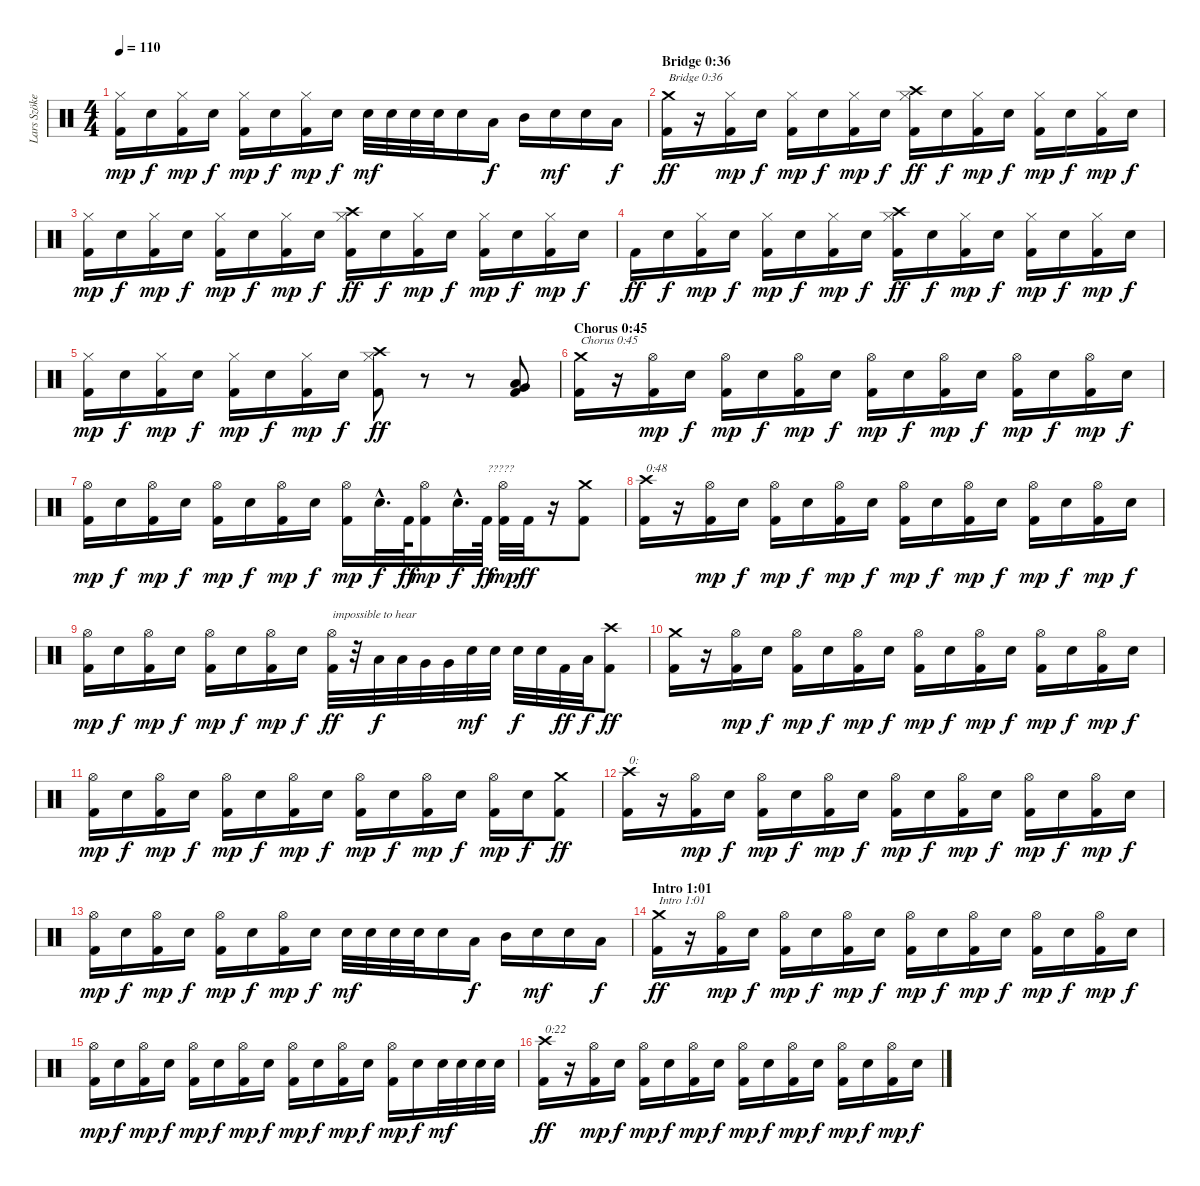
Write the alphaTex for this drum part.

\track ("Lars Szöke (Drums)" "Lars Szöke") {instrument percussion}
\staff {score}
\articulation defaults
\ts (4 4)
\tempo 110
\clef neutral
\ks c
("Kick (hit) 2" "Hi-Hat (closed)").16{dy mp} "Electric Snare (hit)".16{dy f} ("Kick (hit) 2" "Hi-Hat (closed)").16{dy mp} "Electric Snare (hit)".16{dy f} ("Kick (hit) 2" "Hi-Hat (closed)").16{dy mp} "Electric Snare (hit)".16{dy f} ("Kick (hit) 2" "Hi-Hat (closed)").16{dy mp} "Electric Snare (hit)".16{dy f} "Electric Snare (hit)".32{dy mf} "Electric Snare (hit)".32 "Electric Snare (hit)".32 "Electric Snare (hit)".32 "Electric Snare (hit)".16 "Low Tom (hit)".16{dy f} "Mid Tom (hit)".16 "Electric Snare (hit)".16{dy mf} "Electric Snare (hit)".16 "Low Tom (hit)".16{dy f} |
\section ("" "Bridge 0:36")
("Kick (hit) 2" "Crash medium (hit)").16{txt "Bridge 0:36" dy ff} r.16 ("Kick (hit) 2" "Hi-Hat (closed)").16{dy mp} "Electric Snare (hit)".16{dy f} ("Kick (hit) 2" "Hi-Hat (closed)").16{dy mp} "Electric Snare (hit)".16{dy f} ("Kick (hit) 2" "Hi-Hat (closed)").16{dy mp} "Electric Snare (hit)".16{dy f} ("Kick (hit) 2" "Hi-Hat (closed)" "Crash high (hit)").16{dy ff} "Electric Snare (hit)".16{dy f} ("Kick (hit) 2" "Hi-Hat (closed)").16{dy mp} "Electric Snare (hit)".16{dy f} ("Kick (hit) 2" "Hi-Hat (closed)").16{dy mp} "Electric Snare (hit)".16{dy f} ("Kick (hit) 2" "Hi-Hat (closed)").16{dy mp} "Electric Snare (hit)".16{dy f} |
("Kick (hit) 2" "Hi-Hat (closed)").16{dy mp} "Electric Snare (hit)".16{dy f} ("Kick (hit) 2" "Hi-Hat (closed)").16{dy mp} "Electric Snare (hit)".16{dy f} ("Kick (hit) 2" "Hi-Hat (closed)").16{dy mp} "Electric Snare (hit)".16{dy f} ("Kick (hit) 2" "Hi-Hat (closed)").16{dy mp} "Electric Snare (hit)".16{dy f} ("Kick (hit) 2" "Hi-Hat (closed)" "Crash high (hit)").16{dy ff} "Electric Snare (hit)".16{dy f} ("Kick (hit) 2" "Hi-Hat (closed)").16{dy mp} "Electric Snare (hit)".16{dy f} ("Kick (hit) 2" "Hi-Hat (closed)").16{dy mp} "Electric Snare (hit)".16{dy f} ("Kick (hit) 2" "Hi-Hat (closed)").16{dy mp} "Electric Snare (hit)".16{dy f} |
"Kick (hit) 2".16{dy ff} "Electric Snare (hit)".16{dy f} ("Kick (hit) 2" "Hi-Hat (closed)").16{dy mp} "Electric Snare (hit)".16{dy f} ("Kick (hit) 2" "Hi-Hat (closed)").16{dy mp} "Electric Snare (hit)".16{dy f} ("Kick (hit) 2" "Hi-Hat (closed)").16{dy mp} "Electric Snare (hit)".16{dy f} ("Kick (hit) 2" "Hi-Hat (closed)" "Crash high (hit)").16{dy ff} "Electric Snare (hit)".16{dy f} ("Kick (hit) 2" "Hi-Hat (closed)").16{dy mp} "Electric Snare (hit)".16{dy f} ("Kick (hit) 2" "Hi-Hat (closed)").16{dy mp} "Electric Snare (hit)".16{dy f} ("Kick (hit) 2" "Hi-Hat (closed)").16{dy mp} "Electric Snare (hit)".16{dy f} |
("Kick (hit) 2" "Hi-Hat (closed)").16{dy mp} "Electric Snare (hit)".16{dy f} ("Kick (hit) 2" "Hi-Hat (closed)").16{dy mp} "Electric Snare (hit)".16{dy f} ("Kick (hit) 2" "Hi-Hat (closed)").16{dy mp} "Electric Snare (hit)".16{dy f} ("Kick (hit) 2" "Hi-Hat (closed)").16{dy mp} "Electric Snare (hit)".16{dy f} ("Kick (hit) 2" "Hi-Hat (closed)" "Crash high (hit)").8{dy ff} r.8 r.8 ("Kick (hit) 2" "Low Tom (hit)" "Very Low Tom (hit)").8 |
\section ("" "Chorus 0:45")
("Kick (hit) 2" "Crash medium (hit)").16{txt "Chorus 0:45"} r.16 ("Kick (hit) 2" "Hi-Hat (open)").16{dy mp} "Electric Snare (hit)".16{dy f} ("Kick (hit) 2" "Hi-Hat (open)").16{dy mp} "Electric Snare (hit)".16{dy f} ("Kick (hit) 2" "Hi-Hat (open)").16{dy mp} "Electric Snare (hit)".16{dy f} ("Kick (hit) 2" "Hi-Hat (open)").16{dy mp} "Electric Snare (hit)".16{dy f} ("Kick (hit) 2" "Hi-Hat (open)").16{dy mp} "Electric Snare (hit)".16{dy f} ("Kick (hit) 2" "Hi-Hat (open)").16{dy mp} "Electric Snare (hit)".16{dy f} ("Kick (hit) 2" "Hi-Hat (open)").16{dy mp} "Electric Snare (hit)".16{dy f} |
("Kick (hit) 2" "Hi-Hat (open)").16{dy mp} "Electric Snare (hit)".16{dy f} ("Kick (hit) 2" "Hi-Hat (open)").16{dy mp} "Electric Snare (hit)".16{dy f} ("Kick (hit) 2" "Hi-Hat (open)").16{dy mp} "Electric Snare (hit)".16{dy f} ("Kick (hit) 2" "Hi-Hat (open)").16{dy mp} "Electric Snare (hit)".16{dy f} ("Kick (hit) 2" "Hi-Hat (open)").16{dy mp} "Electric Snare (hit)"{hac}.32{d dy f} "Kick (hit) 2".64{dy ff} ("Kick (hit) 2" "Hi-Hat (open)").16{dy mp} "Electric Snare (hit)"{hac}.32{d dy f} "Kick (hit) 2".64{txt "?????" dy ff} ("Kick (hit) 2" "Hi-Hat (open)").32{dy mp} "Kick (hit) 2".32{dy ff} r.16 ("Kick (hit) 2" "Crash medium (hit)").8 |
("Kick (hit) 2" "Crash high (hit)").16{txt "0:48"} r.16 ("Kick (hit) 2" "Hi-Hat (open)").16{dy mp} "Electric Snare (hit)".16{dy f} ("Kick (hit) 2" "Hi-Hat (open)").16{dy mp} "Electric Snare (hit)".16{dy f} ("Kick (hit) 2" "Hi-Hat (open)").16{dy mp} "Electric Snare (hit)".16{dy f} ("Kick (hit) 2" "Hi-Hat (open)").16{dy mp} "Electric Snare (hit)".16{dy f} ("Kick (hit) 2" "Hi-Hat (open)").16{dy mp} "Electric Snare (hit)".16{dy f} ("Kick (hit) 2" "Hi-Hat (open)").16{dy mp} "Electric Snare (hit)".16{dy f} ("Kick (hit) 2" "Hi-Hat (open)").16{dy mp} "Electric Snare (hit)".16{dy f} |
("Kick (hit) 2" "Hi-Hat (open)").16{dy mp} "Electric Snare (hit)".16{dy f} ("Kick (hit) 2" "Hi-Hat (open)").16{dy mp} "Electric Snare (hit)".16{dy f} ("Kick (hit) 2" "Hi-Hat (open)").16{dy mp} "Electric Snare (hit)".16{dy f} ("Kick (hit) 2" "Hi-Hat (open)").16{dy mp} "Electric Snare (hit)".16{dy f} ("Kick (hit) 2" "Hi-Hat (open)").32{txt "impossible to hear" dy ff} r.32 "Low Tom (hit)".32{dy f} "Low Tom (hit)".32 "Very Low Tom (hit)".32 "Very Low Tom (hit)".32 "Electric Snare (hit)".32{dy mf} "Electric Snare (hit)".32 "Electric Snare (hit)".32{dy f} "Electric Snare (hit)".32 "Kick (hit) 2".32{dy ff} "Low Tom (hit)".32{dy f} ("Kick (hit) 2" "Crash high (hit)").8{dy ff} |
("Kick (hit) 2" "Crash medium (hit)").16 r.16 ("Kick (hit) 2" "Hi-Hat (open)").16{dy mp} "Electric Snare (hit)".16{dy f} ("Kick (hit) 2" "Hi-Hat (open)").16{dy mp} "Electric Snare (hit)".16{dy f} ("Kick (hit) 2" "Hi-Hat (open)").16{dy mp} "Electric Snare (hit)".16{dy f} ("Kick (hit) 2" "Hi-Hat (open)").16{dy mp} "Electric Snare (hit)".16{dy f} ("Kick (hit) 2" "Hi-Hat (open)").16{dy mp} "Electric Snare (hit)".16{dy f} ("Kick (hit) 2" "Hi-Hat (open)").16{dy mp} "Electric Snare (hit)".16{dy f} ("Kick (hit) 2" "Hi-Hat (open)").16{dy mp} "Electric Snare (hit)".16{dy f} |
("Kick (hit) 2" "Hi-Hat (open)").16{dy mp} "Electric Snare (hit)".16{dy f} ("Kick (hit) 2" "Hi-Hat (open)").16{dy mp} "Electric Snare (hit)".16{dy f} ("Kick (hit) 2" "Hi-Hat (open)").16{dy mp} "Electric Snare (hit)".16{dy f} ("Kick (hit) 2" "Hi-Hat (open)").16{dy mp} "Electric Snare (hit)".16{dy f} ("Kick (hit) 2" "Hi-Hat (open)").16{dy mp} "Electric Snare (hit)".16{dy f} ("Kick (hit) 2" "Hi-Hat (open)").16{dy mp} "Electric Snare (hit)".16{dy f} ("Kick (hit) 2" "Hi-Hat (open)").16{dy mp} "Electric Snare (hit)".16{dy f} ("Kick (hit) 2" "Crash medium (hit)").8{dy ff} |
("Kick (hit) 2" "Crash high (hit)").16{txt "0:"} r.16 ("Kick (hit) 2" "Hi-Hat (open)").16{dy mp} "Electric Snare (hit)".16{dy f} ("Kick (hit) 2" "Hi-Hat (open)").16{dy mp} "Electric Snare (hit)".16{dy f} ("Kick (hit) 2" "Hi-Hat (open)").16{dy mp} "Electric Snare (hit)".16{dy f} ("Kick (hit) 2" "Hi-Hat (open)").16{dy mp} "Electric Snare (hit)".16{dy f} ("Kick (hit) 2" "Hi-Hat (open)").16{dy mp} "Electric Snare (hit)".16{dy f} ("Kick (hit) 2" "Hi-Hat (open)").16{dy mp} "Electric Snare (hit)".16{dy f} ("Kick (hit) 2" "Hi-Hat (open)").16{dy mp} "Electric Snare (hit)".16{dy f} |
("Kick (hit) 2" "Hi-Hat (open)").16{dy mp} "Electric Snare (hit)".16{dy f} ("Kick (hit) 2" "Hi-Hat (open)").16{dy mp} "Electric Snare (hit)".16{dy f} ("Kick (hit) 2" "Hi-Hat (open)").16{dy mp} "Electric Snare (hit)".16{dy f} ("Kick (hit) 2" "Hi-Hat (open)").16{dy mp} "Electric Snare (hit)".16{dy f} "Electric Snare (hit)".32{dy mf} "Electric Snare (hit)".32 "Electric Snare (hit)".32 "Electric Snare (hit)".32 "Electric Snare (hit)".16 "Low Tom (hit)".16{dy f} "Mid Tom (hit)".16 "Electric Snare (hit)".16{dy mf} "Electric Snare (hit)".16 "Low Tom (hit)".16{dy f} |
\section ("" "Intro 1:01")
("Kick (hit) 2" "Crash medium (hit)").16{txt "Intro 1:01" dy ff} r.16 ("Kick (hit) 2" "Hi-Hat (open)").16{dy mp} "Electric Snare (hit)".16{dy f} ("Kick (hit) 2" "Hi-Hat (open)").16{dy mp} "Electric Snare (hit)".16{dy f} ("Kick (hit) 2" "Hi-Hat (open)").16{dy mp} "Electric Snare (hit)".16{dy f} ("Kick (hit) 2" "Hi-Hat (open)").16{dy mp} "Electric Snare (hit)".16{dy f} ("Kick (hit) 2" "Hi-Hat (open)").16{dy mp} "Electric Snare (hit)".16{dy f} ("Kick (hit) 2" "Hi-Hat (open)").16{dy mp} "Electric Snare (hit)".16{dy f} ("Kick (hit) 2" "Hi-Hat (open)").16{dy mp} "Electric Snare (hit)".16{dy f} |
("Kick (hit) 2" "Hi-Hat (open)").16{dy mp} "Electric Snare (hit)".16{dy f} ("Kick (hit) 2" "Hi-Hat (open)").16{dy mp} "Electric Snare (hit)".16{dy f} ("Kick (hit) 2" "Hi-Hat (open)").16{dy mp} "Electric Snare (hit)".16{dy f} ("Kick (hit) 2" "Hi-Hat (open)").16{dy mp} "Electric Snare (hit)".16{dy f} ("Kick (hit) 2" "Hi-Hat (open)").16{dy mp} "Electric Snare (hit)".16{dy f} ("Kick (hit) 2" "Hi-Hat (open)").16{dy mp} "Electric Snare (hit)".16{dy f} ("Kick (hit) 2" "Hi-Hat (open)").16{dy mp} "Electric Snare (hit)".16{dy f} "Electric Snare (hit)".32{dy mf} "Electric Snare (hit)".32 "Electric Snare (hit)".32 "Electric Snare (hit)".32 |
("Kick (hit) 2" "Crash high (hit)").16{txt "0:22" dy ff} r.16 ("Kick (hit) 2" "Hi-Hat (open)").16{dy mp} "Electric Snare (hit)".16{dy f} ("Kick (hit) 2" "Hi-Hat (open)").16{dy mp} "Electric Snare (hit)".16{dy f} ("Kick (hit) 2" "Hi-Hat (open)").16{dy mp} "Electric Snare (hit)".16{dy f} ("Kick (hit) 2" "Hi-Hat (open)").16{dy mp} "Electric Snare (hit)".16{dy f} ("Kick (hit) 2" "Hi-Hat (open)").16{dy mp} "Electric Snare (hit)".16{dy f} ("Kick (hit) 2" "Hi-Hat (open)").16{dy mp} "Electric Snare (hit)".16{dy f} ("Kick (hit) 2" "Hi-Hat (open)").16{dy mp} "Electric Snare (hit)".16{dy f}
